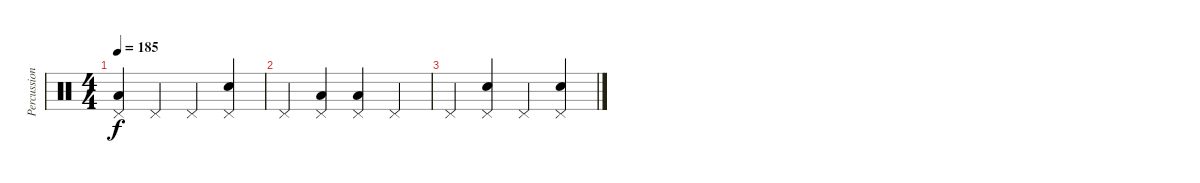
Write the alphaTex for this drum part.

\track ("Percussion" "Percussion") {instrument percussion}
\staff {score}
\articulation defaults
\ts (4 4)
\tempo 185
\clef neutral
\ks c
("Pedal Hi-Hat (hit)" "Low Tom (hit)").4{dy f} "Pedal Hi-Hat (hit)".4 "Pedal Hi-Hat (hit)".4 ("Pedal Hi-Hat (hit)" "Snare (hit) 2").4 |
"Pedal Hi-Hat (hit)".4 ("Pedal Hi-Hat (hit)" "Low Tom (hit)").4 ("Pedal Hi-Hat (hit)" "Low Tom (hit)").4 "Pedal Hi-Hat (hit)".4 |
"Pedal Hi-Hat (hit)".4 ("Pedal Hi-Hat (hit)" "Snare (hit) 2").4 "Pedal Hi-Hat (hit)".4 ("Pedal Hi-Hat (hit)" "Snare (hit) 2").4
